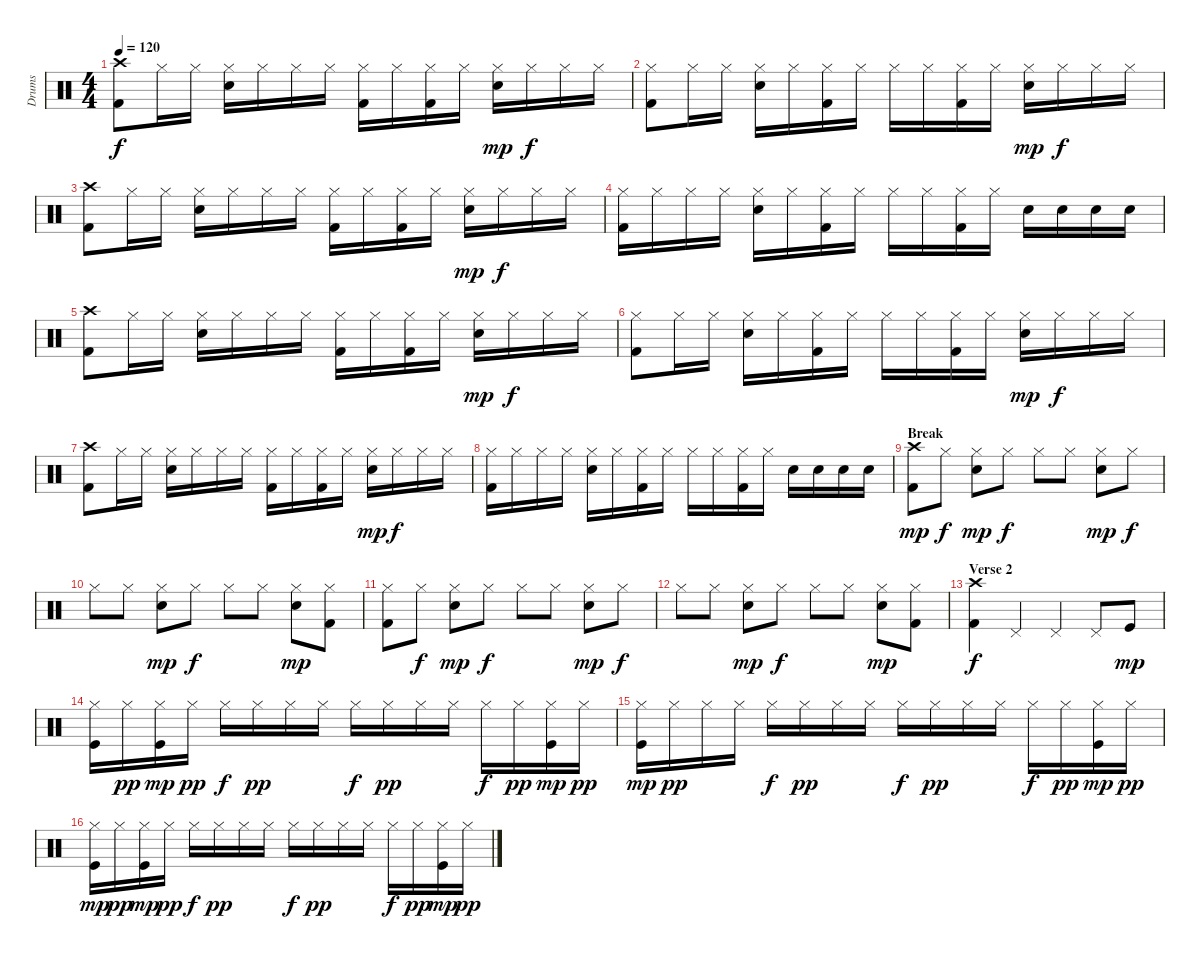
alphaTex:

\track ("Drums" "Drums") {instrument percussion}
\staff {score}
\articulation defaults
\ts (4 4)
\tempo 120
\clef neutral
\ks c
("Crash high (hit)" "Kick (hit) 2").8{dy f} "Hi-Hat (closed)".16 "Hi-Hat (closed)".16 ("Hi-Hat (closed)" "Electric Snare (hit)").16 "Hi-Hat (closed)".16 "Hi-Hat (closed)".16 "Hi-Hat (closed)".16 ("Hi-Hat (closed)" "Kick (hit) 2").16 "Hi-Hat (closed)".16 ("Hi-Hat (closed)" "Kick (hit) 2").16 "Hi-Hat (closed)".16 ("Hi-Hat (closed)" "Electric Snare (hit)").16{dy mp} "Hi-Hat (closed)".16{dy f} "Hi-Hat (closed)".16 "Hi-Hat (closed)".16 |
("Hi-Hat (closed)" "Kick (hit) 2").8 "Hi-Hat (closed)".16 "Hi-Hat (closed)".16 ("Hi-Hat (closed)" "Electric Snare (hit)").16 "Hi-Hat (closed)".16 ("Hi-Hat (closed)" "Kick (hit) 2").16 "Hi-Hat (closed)".16 "Hi-Hat (closed)".16 "Hi-Hat (closed)".16 ("Hi-Hat (closed)" "Kick (hit) 2").16 "Hi-Hat (closed)".16 ("Hi-Hat (closed)" "Electric Snare (hit)").16{dy mp} "Hi-Hat (closed)".16{dy f} "Hi-Hat (closed)".16 "Hi-Hat (closed)".16 |
("Crash high (hit)" "Kick (hit) 2").8 "Hi-Hat (closed)".16 "Hi-Hat (closed)".16 ("Hi-Hat (closed)" "Electric Snare (hit)").16 "Hi-Hat (closed)".16 "Hi-Hat (closed)".16 "Hi-Hat (closed)".16 ("Hi-Hat (closed)" "Kick (hit) 2").16 "Hi-Hat (closed)".16 ("Hi-Hat (closed)" "Kick (hit) 2").16 "Hi-Hat (closed)".16 ("Hi-Hat (closed)" "Electric Snare (hit)").16{dy mp} "Hi-Hat (closed)".16{dy f} "Hi-Hat (closed)".16 "Hi-Hat (closed)".16 |
("Hi-Hat (closed)" "Kick (hit) 2").16 "Hi-Hat (closed)".16 "Hi-Hat (closed)".16 "Hi-Hat (closed)".16 ("Hi-Hat (closed)" "Electric Snare (hit)").16 "Hi-Hat (closed)".16 ("Hi-Hat (closed)" "Kick (hit) 2").16 "Hi-Hat (closed)".16 "Hi-Hat (closed)".16 "Hi-Hat (closed)".16 ("Hi-Hat (closed)" "Kick (hit) 2").16 "Hi-Hat (closed)".16 "Electric Snare (hit)".16 "Electric Snare (hit)".16 "Electric Snare (hit)".16 "Electric Snare (hit)".16 |
("Crash high (hit)" "Kick (hit) 2").8 "Hi-Hat (closed)".16 "Hi-Hat (closed)".16 ("Hi-Hat (closed)" "Electric Snare (hit)").16 "Hi-Hat (closed)".16 "Hi-Hat (closed)".16 "Hi-Hat (closed)".16 ("Hi-Hat (closed)" "Kick (hit) 2").16 "Hi-Hat (closed)".16 ("Hi-Hat (closed)" "Kick (hit) 2").16 "Hi-Hat (closed)".16 ("Hi-Hat (closed)" "Electric Snare (hit)").16{dy mp} "Hi-Hat (closed)".16{dy f} "Hi-Hat (closed)".16 "Hi-Hat (closed)".16 |
("Hi-Hat (closed)" "Kick (hit) 2").8 "Hi-Hat (closed)".16 "Hi-Hat (closed)".16 ("Hi-Hat (closed)" "Electric Snare (hit)").16 "Hi-Hat (closed)".16 ("Hi-Hat (closed)" "Kick (hit) 2").16 "Hi-Hat (closed)".16 "Hi-Hat (closed)".16 "Hi-Hat (closed)".16 ("Hi-Hat (closed)" "Kick (hit) 2").16 "Hi-Hat (closed)".16 ("Hi-Hat (closed)" "Electric Snare (hit)").16{dy mp} "Hi-Hat (closed)".16{dy f} "Hi-Hat (closed)".16 "Hi-Hat (closed)".16 |
("Crash high (hit)" "Kick (hit) 2").8 "Hi-Hat (closed)".16 "Hi-Hat (closed)".16 ("Hi-Hat (closed)" "Electric Snare (hit)").16 "Hi-Hat (closed)".16 "Hi-Hat (closed)".16 "Hi-Hat (closed)".16 ("Hi-Hat (closed)" "Kick (hit) 2").16 "Hi-Hat (closed)".16 ("Hi-Hat (closed)" "Kick (hit) 2").16 "Hi-Hat (closed)".16 ("Hi-Hat (closed)" "Electric Snare (hit)").16{dy mp} "Hi-Hat (closed)".16{dy f} "Hi-Hat (closed)".16 "Hi-Hat (closed)".16 |
("Hi-Hat (closed)" "Kick (hit) 2").16 "Hi-Hat (closed)".16 "Hi-Hat (closed)".16 "Hi-Hat (closed)".16 ("Hi-Hat (closed)" "Electric Snare (hit)").16 "Hi-Hat (closed)".16 ("Hi-Hat (closed)" "Kick (hit) 2").16 "Hi-Hat (closed)".16 "Hi-Hat (closed)".16 "Hi-Hat (closed)".16 ("Hi-Hat (closed)" "Kick (hit) 2").16 "Hi-Hat (closed)".16 "Electric Snare (hit)".16 "Electric Snare (hit)".16 "Electric Snare (hit)".16 "Electric Snare (hit)".16 |
\section ("" "Break")
("Crash high (hit)" "Kick (hit) 2").8{dy mp} "Hi-Hat (closed)".8{dy f} ("Hi-Hat (closed)" "Electric Snare (hit)").8{dy mp} "Hi-Hat (closed)".8{dy f} "Hi-Hat (closed)".8 "Hi-Hat (closed)".8 ("Hi-Hat (closed)" "Electric Snare (hit)").8{dy mp} "Hi-Hat (closed)".8{dy f} |
"Hi-Hat (closed)".8 "Hi-Hat (closed)".8 ("Hi-Hat (closed)" "Electric Snare (hit)").8{dy mp} "Hi-Hat (closed)".8{dy f} "Hi-Hat (closed)".8 "Hi-Hat (closed)".8 ("Hi-Hat (closed)" "Electric Snare (hit)").8{dy mp} ("Hi-Hat (closed)" "Kick (hit) 2").8 |
("Hi-Hat (closed)" "Kick (hit) 2").8 "Hi-Hat (closed)".8{dy f} ("Hi-Hat (closed)" "Electric Snare (hit)").8{dy mp} "Hi-Hat (closed)".8{dy f} "Hi-Hat (closed)".8 "Hi-Hat (closed)".8 ("Hi-Hat (closed)" "Electric Snare (hit)").8{dy mp} "Hi-Hat (closed)".8{dy f} |
"Hi-Hat (closed)".8 "Hi-Hat (closed)".8 ("Hi-Hat (closed)" "Electric Snare (hit)").8{dy mp} "Hi-Hat (closed)".8{dy f} "Hi-Hat (closed)".8 "Hi-Hat (closed)".8 ("Hi-Hat (closed)" "Electric Snare (hit)").8{dy mp} ("Hi-Hat (closed)" "Kick (hit) 2").8 |
\section ("" "Verse 2")
("Crash high (hit)" "Kick (hit) 2").4{dy f} "Pedal Hi-Hat (hit)".4 "Pedal Hi-Hat (hit)".4 "Pedal Hi-Hat (hit)".8 "Kick (hit)".8{dy mp} |
("Hi-Hat (closed)" "Kick (hit)").16 "Hi-Hat (closed)".16{dy pp} ("Hi-Hat (closed)" "Kick (hit)").16{dy mp} "Hi-Hat (closed)".16{dy pp} "Hi-Hat (closed)".16{dy f} "Hi-Hat (closed)".16{dy pp} "Hi-Hat (closed)".16 "Hi-Hat (closed)".16 "Hi-Hat (closed)".16{dy f} "Hi-Hat (closed)".16{dy pp} "Hi-Hat (closed)".16 "Hi-Hat (closed)".16 "Hi-Hat (closed)".16{dy f} "Hi-Hat (closed)".16{dy pp} ("Hi-Hat (closed)" "Kick (hit)").16{dy mp} "Hi-Hat (closed)".16{dy pp} |
("Hi-Hat (closed)" "Kick (hit)").16{dy mp} "Hi-Hat (closed)".16{dy pp} "Hi-Hat (closed)".16 "Hi-Hat (closed)".16 "Hi-Hat (closed)".16{dy f} "Hi-Hat (closed)".16{dy pp} "Hi-Hat (closed)".16 "Hi-Hat (closed)".16 "Hi-Hat (closed)".16{dy f} "Hi-Hat (closed)".16{dy pp} "Hi-Hat (closed)".16 "Hi-Hat (closed)".16 "Hi-Hat (closed)".16{dy f} "Hi-Hat (closed)".16{dy pp} ("Hi-Hat (closed)" "Kick (hit)").16{dy mp} "Hi-Hat (closed)".16{dy pp} |
("Hi-Hat (closed)" "Kick (hit)").16{dy mp} "Hi-Hat (closed)".16{dy pp} ("Hi-Hat (closed)" "Kick (hit)").16{dy mp} "Hi-Hat (closed)".16{dy pp} "Hi-Hat (closed)".16{dy f} "Hi-Hat (closed)".16{dy pp} "Hi-Hat (closed)".16 "Hi-Hat (closed)".16 "Hi-Hat (closed)".16{dy f} "Hi-Hat (closed)".16{dy pp} "Hi-Hat (closed)".16 "Hi-Hat (closed)".16 "Hi-Hat (closed)".16{dy f} "Hi-Hat (closed)".16{dy pp} ("Hi-Hat (closed)" "Kick (hit)").16{dy mp} "Hi-Hat (closed)".16{dy pp}
